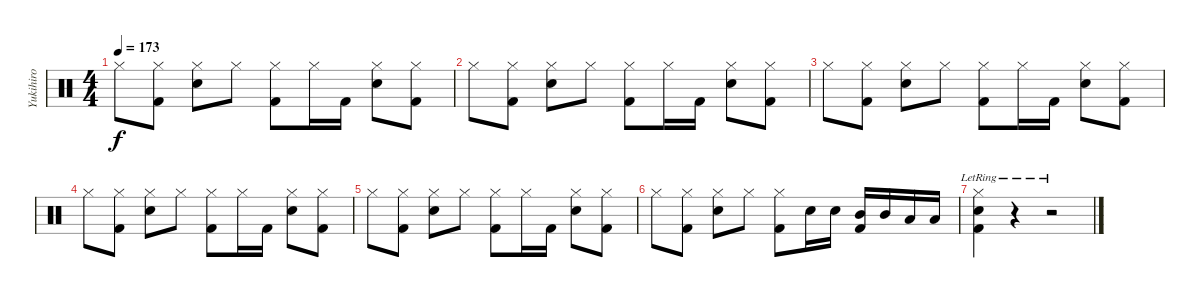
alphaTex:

\track ("Yukihiro" "Yukihiro") {instrument percussion}
\staff {score}
\articulation defaults
\ts (4 4)
\tempo 173
\clef neutral
\ks c "Hi-Hat (closed)".8{dy f}
("Hi-Hat (closed)" "Kick (hit) 2").8 ("Hi-Hat (closed)" "Snare (hit) 2").8 "Hi-Hat (closed)".8 ("Hi-Hat (closed)" "Kick (hit) 2").8 "Hi-Hat (closed)".16 "Kick (hit) 2".16 ("Hi-Hat (closed)" "Snare (hit) 2").8 ("Hi-Hat (closed)" "Kick (hit) 2").8 |
"Hi-Hat (closed)".8 ("Hi-Hat (closed)" "Kick (hit) 2").8 ("Hi-Hat (closed)" "Snare (hit) 2").8 "Hi-Hat (closed)".8 ("Hi-Hat (closed)" "Kick (hit) 2").8 "Hi-Hat (closed)".16 "Kick (hit) 2".16 ("Hi-Hat (closed)" "Snare (hit) 2").8 ("Hi-Hat (closed)" "Kick (hit) 2").8 |
"Hi-Hat (closed)".8 ("Hi-Hat (closed)" "Kick (hit) 2").8 ("Hi-Hat (closed)" "Snare (hit) 2").8 "Hi-Hat (closed)".8 ("Hi-Hat (closed)" "Kick (hit) 2").8 "Hi-Hat (closed)".16 "Kick (hit) 2".16 ("Hi-Hat (closed)" "Snare (hit) 2").8 ("Hi-Hat (closed)" "Kick (hit) 2").8 |
"Hi-Hat (closed)".8 ("Hi-Hat (closed)" "Kick (hit) 2").8 ("Hi-Hat (closed)" "Snare (hit) 2").8 "Hi-Hat (closed)".8 ("Hi-Hat (closed)" "Kick (hit) 2").8 "Hi-Hat (closed)".16 "Kick (hit) 2".16 ("Hi-Hat (closed)" "Snare (hit) 2").8 ("Hi-Hat (closed)" "Kick (hit) 2").8 |
"Hi-Hat (closed)".8 ("Hi-Hat (closed)" "Kick (hit) 2").8 ("Hi-Hat (closed)" "Snare (hit) 2").8 "Hi-Hat (closed)".8 ("Hi-Hat (closed)" "Kick (hit) 2").8 "Hi-Hat (closed)".16 "Kick (hit) 2".16 ("Hi-Hat (closed)" "Snare (hit) 2").8 ("Hi-Hat (closed)" "Kick (hit) 2").8 |
"Hi-Hat (closed)".8 ("Hi-Hat (closed)" "Kick (hit) 2").8 ("Hi-Hat (closed)" "Snare (hit) 2").8 "Hi-Hat (closed)".8 ("Hi-Hat (closed)" "Kick (hit) 2").8 "Snare (hit) 2".16 "Snare (hit) 2".16 ("Mid Tom (hit)" "Kick (hit) 2").16 "Mid Tom (hit)".16 "Low Tom (hit)".16 "Low Tom (hit)".16 |
("Hi-Hat (closed)"{lr} "Snare (hit) 2"{lr} "Kick (hit) 2"{lr}).4 r.4 r.2
